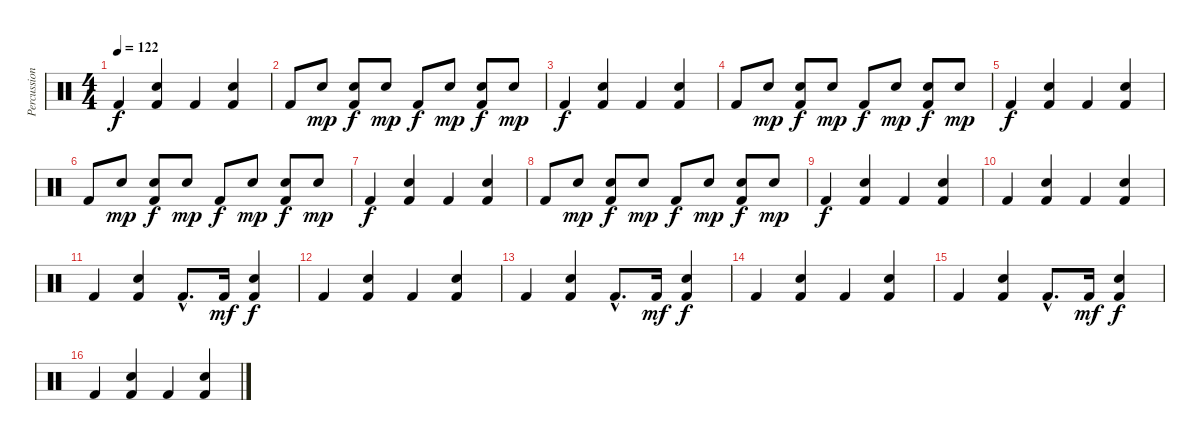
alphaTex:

\track ("Percussion" "Percussion") {instrument percussion}
\staff {score}
\articulation defaults
\ts (4 4)
\tempo 122
\clef neutral
\ks c "Kick (hit) 2".4{dy f volume 16 balance 8}
("Snare (hit) 2" "Kick (hit) 2").4 "Kick (hit) 2".4 ("Snare (hit) 2" "Kick (hit) 2").4 |
"Kick (hit) 2".8 "Hand Clap (hit)".8{dy mp balance 16} ("Snare (hit) 2" "Kick (hit) 2").8{dy f balance 8} "Hand Clap (hit)".8{dy mp balance 0} "Kick (hit) 2".8{dy f balance 8} "Hand Clap (hit)".8{dy mp balance 16} ("Snare (hit) 2" "Kick (hit) 2").8{dy f balance 8} "Hand Clap (hit)".8{dy mp balance 0} |
"Kick (hit) 2".4{dy f volume 16 balance 8} ("Snare (hit) 2" "Kick (hit) 2").4 "Kick (hit) 2".4 ("Snare (hit) 2" "Kick (hit) 2").4 |
"Kick (hit) 2".8 "Hand Clap (hit)".8{dy mp balance 16} ("Snare (hit) 2" "Kick (hit) 2").8{dy f balance 8} "Hand Clap (hit)".8{dy mp balance 0} "Kick (hit) 2".8{dy f balance 8} "Hand Clap (hit)".8{dy mp balance 16} ("Snare (hit) 2" "Kick (hit) 2").8{dy f balance 8} "Hand Clap (hit)".8{dy mp balance 0} |
"Kick (hit) 2".4{dy f volume 16 balance 8} ("Snare (hit) 2" "Kick (hit) 2").4 "Kick (hit) 2".4 ("Snare (hit) 2" "Kick (hit) 2").4 |
"Kick (hit) 2".8 "Hand Clap (hit)".8{dy mp balance 16} ("Snare (hit) 2" "Kick (hit) 2").8{dy f balance 8} "Hand Clap (hit)".8{dy mp balance 0} "Kick (hit) 2".8{dy f balance 8} "Hand Clap (hit)".8{dy mp balance 16} ("Snare (hit) 2" "Kick (hit) 2").8{dy f balance 8} "Hand Clap (hit)".8{dy mp balance 0} |
"Kick (hit) 2".4{dy f volume 16 balance 8} ("Snare (hit) 2" "Kick (hit) 2").4 "Kick (hit) 2".4 ("Snare (hit) 2" "Kick (hit) 2").4 |
"Kick (hit) 2".8 "Hand Clap (hit)".8{dy mp balance 16} ("Snare (hit) 2" "Kick (hit) 2").8{dy f balance 8} "Hand Clap (hit)".8{dy mp balance 0} "Kick (hit) 2".8{dy f balance 8} "Hand Clap (hit)".8{dy mp balance 16} ("Snare (hit) 2" "Kick (hit) 2").8{dy f balance 8} "Hand Clap (hit)".8{dy mp balance 0} |
"Kick (hit) 2".4{dy f volume 16 balance 8} ("Snare (hit) 2" "Kick (hit) 2").4 "Kick (hit) 2".4 ("Snare (hit) 2" "Kick (hit) 2").4 |
"Kick (hit) 2".4 ("Snare (hit) 2" "Kick (hit) 2").4 "Kick (hit) 2".4 ("Snare (hit) 2" "Kick (hit) 2").4 |
"Kick (hit) 2".4 ("Snare (hit) 2" "Kick (hit) 2").4 "Kick (hit) 2"{hac}.8{d} "Kick (hit) 2".16{dy mf} ("Snare (hit) 2" "Kick (hit) 2").4{dy f} |
"Kick (hit) 2".4 ("Snare (hit) 2" "Kick (hit) 2").4 "Kick (hit) 2".4 ("Snare (hit) 2" "Kick (hit) 2").4 |
"Kick (hit) 2".4 ("Snare (hit) 2" "Kick (hit) 2").4 "Kick (hit) 2"{hac}.8{d} "Kick (hit) 2".16{dy mf} ("Snare (hit) 2" "Kick (hit) 2").4{dy f} |
"Kick (hit) 2".4 ("Snare (hit) 2" "Kick (hit) 2").4 "Kick (hit) 2".4 ("Snare (hit) 2" "Kick (hit) 2").4 |
"Kick (hit) 2".4 ("Snare (hit) 2" "Kick (hit) 2").4 "Kick (hit) 2"{hac}.8{d} "Kick (hit) 2".16{dy mf} ("Snare (hit) 2" "Kick (hit) 2").4{dy f} |
"Kick (hit) 2".4 ("Snare (hit) 2" "Kick (hit) 2").4 "Kick (hit) 2".4 ("Snare (hit) 2" "Kick (hit) 2").4
